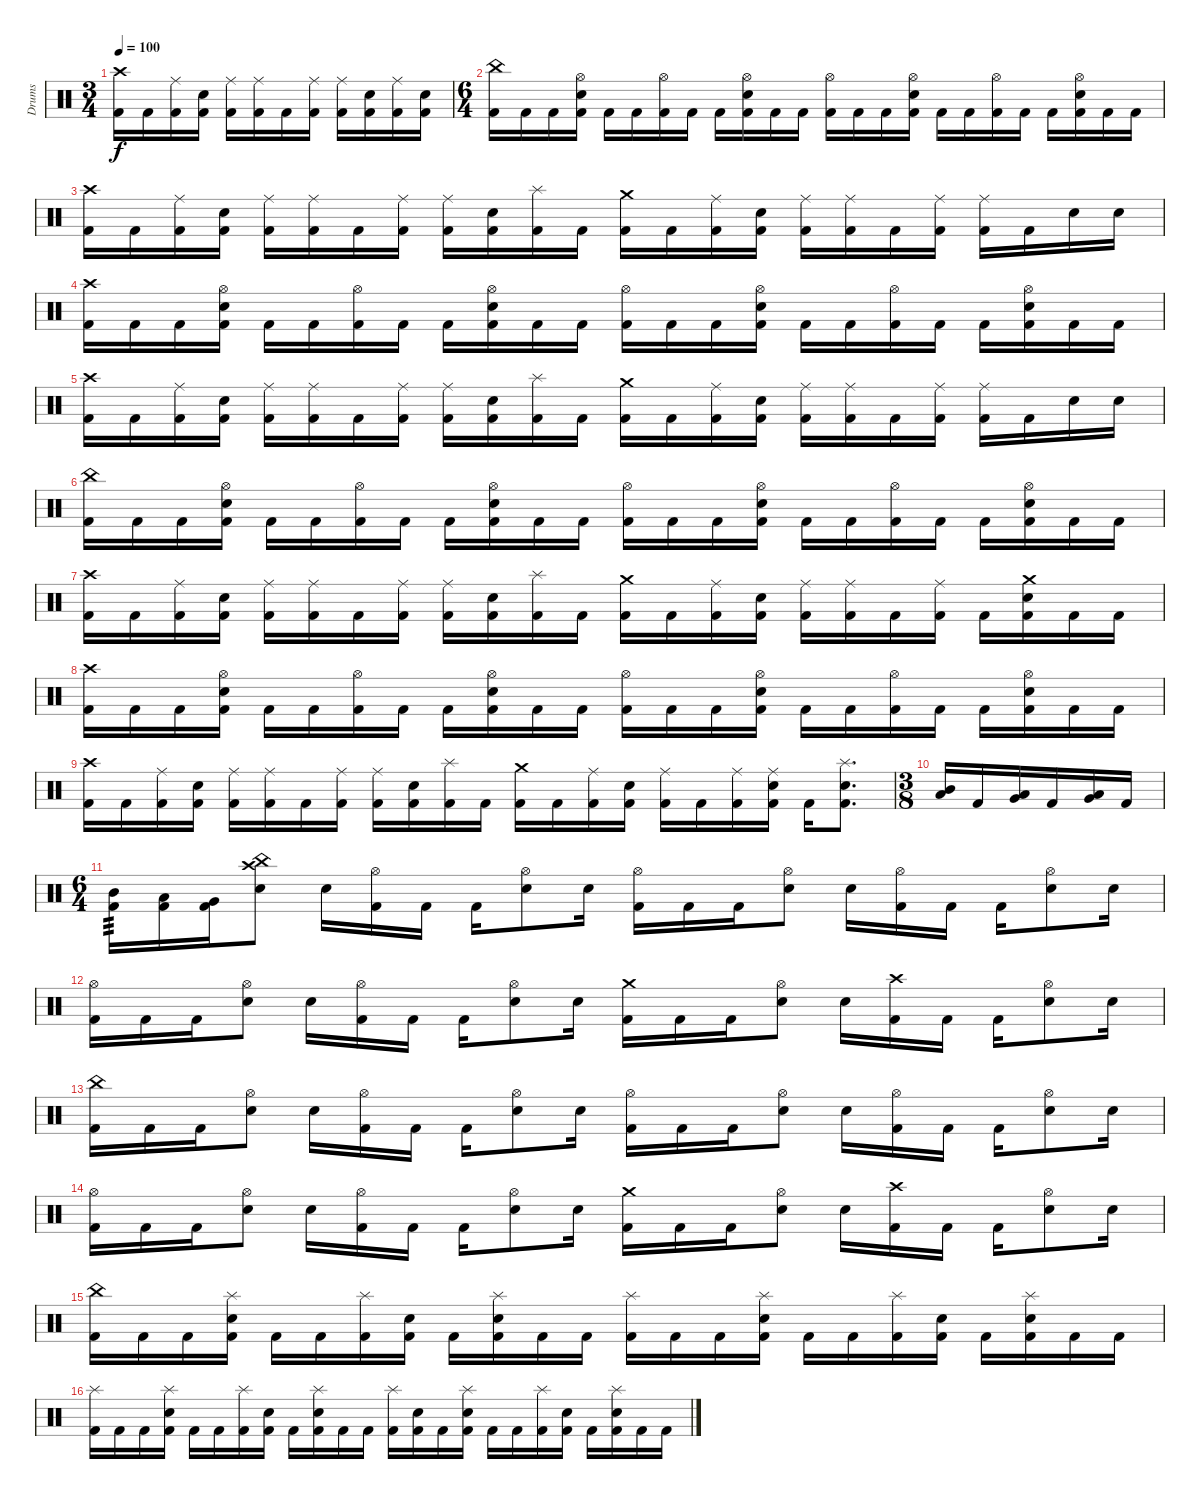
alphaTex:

\track ("Drums" "Drums") {instrument percussion}
\staff {score}
\articulation defaults
\ts (3 4)
\tempo 100
\clef neutral
\ks c
("Crash high (hit)" "Kick (hit) 2").16{dy f} "Kick (hit) 2".16 ("Ride (middle)" "Kick (hit) 2").16 ("Electric Snare (hit)" "Kick (hit) 2").16 ("Ride (middle)" "Kick (hit) 2").16 ("Ride (middle)" "Kick (hit) 2").16 "Kick (hit) 2".16 ("Ride (middle)" "Kick (hit) 2").16 ("Ride (middle)" "Kick (hit) 2").16 ("Electric Snare (hit)" "Kick (hit) 2").16 ("Ride (middle)" "Kick (hit) 2").16 ("Electric Snare (hit)" "Kick (hit) 2").16 |
\ts (6 4)
("China (hit)" "Kick (hit) 2").16 "Kick (hit) 2".16 "Kick (hit) 2".16 ("Hi-Hat (open)" "Electric Snare (hit)" "Kick (hit) 2").16 "Kick (hit) 2".16 "Kick (hit) 2".16 ("Hi-Hat (open)" "Kick (hit) 2").16 "Kick (hit) 2".16 "Kick (hit) 2".16 ("Hi-Hat (open)" "Electric Snare (hit)" "Kick (hit) 2").16 "Kick (hit) 2".16 "Kick (hit) 2".16 ("Hi-Hat (open)" "Kick (hit) 2").16 "Kick (hit) 2".16 "Kick (hit) 2".16 ("Hi-Hat (open)" "Electric Snare (hit)" "Kick (hit) 2").16 "Kick (hit) 2".16 "Kick (hit) 2".16 ("Hi-Hat (open)" "Kick (hit) 2").16 "Kick (hit) 2".16 "Kick (hit) 2".16 ("Hi-Hat (open)" "Electric Snare (hit)" "Kick (hit) 2").16 "Kick (hit) 2".16 "Kick (hit) 2".16 |
("Crash high (hit)" "Kick (hit) 2").16 "Kick (hit) 2".16 ("Ride (middle)" "Kick (hit) 2").16 ("Electric Snare (hit)" "Kick (hit) 2").16 ("Ride (middle)" "Kick (hit) 2").16 ("Ride (middle)" "Kick (hit) 2").16 "Kick (hit) 2".16 ("Ride (middle)" "Kick (hit) 2").16 ("Ride (middle)" "Kick (hit) 2").16 ("Electric Snare (hit)" "Kick (hit) 2").16 ("Splash (hit)" "Kick (hit) 2").16 "Kick (hit) 2".16 ("Crash medium (hit)" "Kick (hit) 2").16 "Kick (hit) 2".16 ("Ride (middle)" "Kick (hit) 2").16 ("Electric Snare (hit)" "Kick (hit) 2").16 ("Ride (middle)" "Kick (hit) 2").16 ("Ride (middle)" "Kick (hit) 2").16 "Kick (hit) 2".16 ("Ride (middle)" "Kick (hit) 2").16 ("Ride (middle)" "Kick (hit) 2").16 "Kick (hit) 2".16 "Electric Snare (hit)".16 "Electric Snare (hit)".16 |
("Crash high (hit)" "Kick (hit) 2").16 "Kick (hit) 2".16 "Kick (hit) 2".16 ("Hi-Hat (open)" "Electric Snare (hit)" "Kick (hit) 2").16 "Kick (hit) 2".16 "Kick (hit) 2".16 ("Hi-Hat (open)" "Kick (hit) 2").16 "Kick (hit) 2".16 "Kick (hit) 2".16 ("Hi-Hat (open)" "Electric Snare (hit)" "Kick (hit) 2").16 "Kick (hit) 2".16 "Kick (hit) 2".16 ("Hi-Hat (open)" "Kick (hit) 2").16 "Kick (hit) 2".16 "Kick (hit) 2".16 ("Hi-Hat (open)" "Electric Snare (hit)" "Kick (hit) 2").16 "Kick (hit) 2".16 "Kick (hit) 2".16 ("Hi-Hat (open)" "Kick (hit) 2").16 "Kick (hit) 2".16 "Kick (hit) 2".16 ("Hi-Hat (open)" "Electric Snare (hit)" "Kick (hit) 2").16 "Kick (hit) 2".16 "Kick (hit) 2".16 |
("Crash high (hit)" "Kick (hit) 2").16 "Kick (hit) 2".16 ("Ride (middle)" "Kick (hit) 2").16 ("Electric Snare (hit)" "Kick (hit) 2").16 ("Ride (middle)" "Kick (hit) 2").16 ("Ride (middle)" "Kick (hit) 2").16 "Kick (hit) 2".16 ("Ride (middle)" "Kick (hit) 2").16 ("Ride (middle)" "Kick (hit) 2").16 ("Electric Snare (hit)" "Kick (hit) 2").16 ("Splash (hit)" "Kick (hit) 2").16 "Kick (hit) 2".16 ("Crash medium (hit)" "Kick (hit) 2").16 "Kick (hit) 2".16 ("Ride (middle)" "Kick (hit) 2").16 ("Electric Snare (hit)" "Kick (hit) 2").16 ("Ride (middle)" "Kick (hit) 2").16 ("Ride (middle)" "Kick (hit) 2").16 "Kick (hit) 2".16 ("Ride (middle)" "Kick (hit) 2").16 ("Ride (middle)" "Kick (hit) 2").16 "Kick (hit) 2".16 "Electric Snare (hit)".16 "Electric Snare (hit)".16 |
("China (hit)" "Kick (hit) 2").16 "Kick (hit) 2".16 "Kick (hit) 2".16 ("Hi-Hat (open)" "Electric Snare (hit)" "Kick (hit) 2").16 "Kick (hit) 2".16 "Kick (hit) 2".16 ("Hi-Hat (open)" "Kick (hit) 2").16 "Kick (hit) 2".16 "Kick (hit) 2".16 ("Hi-Hat (open)" "Electric Snare (hit)" "Kick (hit) 2").16 "Kick (hit) 2".16 "Kick (hit) 2".16 ("Hi-Hat (open)" "Kick (hit) 2").16 "Kick (hit) 2".16 "Kick (hit) 2".16 ("Hi-Hat (open)" "Electric Snare (hit)" "Kick (hit) 2").16 "Kick (hit) 2".16 "Kick (hit) 2".16 ("Hi-Hat (open)" "Kick (hit) 2").16 "Kick (hit) 2".16 "Kick (hit) 2".16 ("Hi-Hat (open)" "Electric Snare (hit)" "Kick (hit) 2").16 "Kick (hit) 2".16 "Kick (hit) 2".16 |
("Crash high (hit)" "Kick (hit) 2").16 "Kick (hit) 2".16 ("Ride (middle)" "Kick (hit) 2").16 ("Electric Snare (hit)" "Kick (hit) 2").16 ("Ride (middle)" "Kick (hit) 2").16 ("Ride (middle)" "Kick (hit) 2").16 "Kick (hit) 2".16 ("Ride (middle)" "Kick (hit) 2").16 ("Ride (middle)" "Kick (hit) 2").16 ("Electric Snare (hit)" "Kick (hit) 2").16 ("Splash (hit)" "Kick (hit) 2").16 "Kick (hit) 2".16 ("Crash medium (hit)" "Kick (hit) 2").16 "Kick (hit) 2".16 ("Ride (middle)" "Kick (hit) 2").16 ("Electric Snare (hit)" "Kick (hit) 2").16 ("Ride (middle)" "Kick (hit) 2").16 ("Ride (middle)" "Kick (hit) 2").16 "Kick (hit) 2".16 ("Ride (middle)" "Kick (hit) 2").16 "Kick (hit) 2".16 ("Crash medium (hit)" "Electric Snare (hit)" "Kick (hit) 2").16 "Kick (hit) 2".16 "Kick (hit) 2".16 |
("Crash high (hit)" "Kick (hit) 2").16 "Kick (hit) 2".16 "Kick (hit) 2".16 ("Hi-Hat (open)" "Electric Snare (hit)" "Kick (hit) 2").16 "Kick (hit) 2".16 "Kick (hit) 2".16 ("Hi-Hat (open)" "Kick (hit) 2").16 "Kick (hit) 2".16 "Kick (hit) 2".16 ("Hi-Hat (open)" "Electric Snare (hit)" "Kick (hit) 2").16 "Kick (hit) 2".16 "Kick (hit) 2".16 ("Hi-Hat (open)" "Kick (hit) 2").16 "Kick (hit) 2".16 "Kick (hit) 2".16 ("Hi-Hat (open)" "Electric Snare (hit)" "Kick (hit) 2").16 "Kick (hit) 2".16 "Kick (hit) 2".16 ("Hi-Hat (open)" "Kick (hit) 2").16 "Kick (hit) 2".16 "Kick (hit) 2".16 ("Hi-Hat (open)" "Electric Snare (hit)" "Kick (hit) 2").16 "Kick (hit) 2".16 "Kick (hit) 2".16 |
("Crash high (hit)" "Kick (hit) 2").16 "Kick (hit) 2".16 ("Ride (middle)" "Kick (hit) 2").16 ("Electric Snare (hit)" "Kick (hit) 2").16 ("Ride (middle)" "Kick (hit) 2").16 ("Ride (middle)" "Kick (hit) 2").16 "Kick (hit) 2".16 ("Ride (middle)" "Kick (hit) 2").16 ("Ride (middle)" "Kick (hit) 2").16 ("Electric Snare (hit)" "Kick (hit) 2").16 ("Splash (hit)" "Kick (hit) 2").16 "Kick (hit) 2".16 ("Crash medium (hit)" "Kick (hit) 2").16 "Kick (hit) 2".16 ("Ride (middle)" "Kick (hit) 2").16 ("Electric Snare (hit)" "Kick (hit) 2").16 ("Ride (middle)" "Kick (hit) 2").16 "Kick (hit) 2".16 ("Ride (middle)" "Kick (hit) 2").16 ("Ride (middle)" "Electric Snare (hit)" "Kick (hit) 2").16 "Kick (hit) 2".16 ("Splash (hit)" "Electric Snare (hit)" "Kick (hit) 2").8{d} |
\ts (3 8)
("Mid Tom (hit)" "Low Tom (hit)").16 "Kick (hit) 2".16 ("Low Tom (hit)" "Very Low Tom (hit)").16 "Kick (hit) 2".16 ("Low Floor Tom (hit)" "Very Low Tom (hit)").16 "Kick (hit) 2".16 |
\ts (6 4)
("Mid Tom (hit)" "Kick (hit) 2").16{tp 3} ("Low Tom (hit)" "Kick (hit) 2").16 ("Very Low Tom (hit)" "Kick (hit) 2").16 ("China (hit)" "Crash high (hit)" "Electric Snare (hit)").8 "Electric Snare (hit)".16 ("Hi-Hat (open)" "Kick (hit) 2").16 "Kick (hit) 2".16 "Kick (hit) 2".16 ("Hi-Hat (open)" "Electric Snare (hit)").8 "Electric Snare (hit)".16 ("Hi-Hat (open)" "Kick (hit) 2").16 "Kick (hit) 2".16 "Kick (hit) 2".16 ("Hi-Hat (open)" "Electric Snare (hit)").8 "Electric Snare (hit)".16 ("Hi-Hat (open)" "Kick (hit) 2").16 "Kick (hit) 2".16 "Kick (hit) 2".16 ("Hi-Hat (open)" "Electric Snare (hit)").8 "Electric Snare (hit)".16 |
("Hi-Hat (open)" "Kick (hit) 2").16 "Kick (hit) 2".16 "Kick (hit) 2".16 ("Hi-Hat (open)" "Electric Snare (hit)").8 "Electric Snare (hit)".16 ("Hi-Hat (open)" "Kick (hit) 2").16 "Kick (hit) 2".16 "Kick (hit) 2".16 ("Hi-Hat (open)" "Electric Snare (hit)").8 "Electric Snare (hit)".16 ("Crash medium (hit)" "Kick (hit) 2").16 "Kick (hit) 2".16 "Kick (hit) 2".16 ("Hi-Hat (open)" "Electric Snare (hit)").8 "Electric Snare (hit)".16 ("Crash high (hit)" "Kick (hit) 2").16 "Kick (hit) 2".16 "Kick (hit) 2".16 ("Hi-Hat (open)" "Electric Snare (hit)").8 "Electric Snare (hit)".16 |
("China (hit)" "Kick (hit) 2").16 "Kick (hit) 2".16 "Kick (hit) 2".16 ("Hi-Hat (open)" "Electric Snare (hit)").8 "Electric Snare (hit)".16 ("Hi-Hat (open)" "Kick (hit) 2").16 "Kick (hit) 2".16 "Kick (hit) 2".16 ("Hi-Hat (open)" "Electric Snare (hit)").8 "Electric Snare (hit)".16 ("Hi-Hat (open)" "Kick (hit) 2").16 "Kick (hit) 2".16 "Kick (hit) 2".16 ("Hi-Hat (open)" "Electric Snare (hit)").8 "Electric Snare (hit)".16 ("Hi-Hat (open)" "Kick (hit) 2").16 "Kick (hit) 2".16 "Kick (hit) 2".16 ("Hi-Hat (open)" "Electric Snare (hit)").8 "Electric Snare (hit)".16 |
("Hi-Hat (open)" "Kick (hit) 2").16 "Kick (hit) 2".16 "Kick (hit) 2".16 ("Hi-Hat (open)" "Electric Snare (hit)").8 "Electric Snare (hit)".16 ("Hi-Hat (open)" "Kick (hit) 2").16 "Kick (hit) 2".16 "Kick (hit) 2".16 ("Hi-Hat (open)" "Electric Snare (hit)").8 "Electric Snare (hit)".16 ("Crash medium (hit)" "Kick (hit) 2").16 "Kick (hit) 2".16 "Kick (hit) 2".16 ("Hi-Hat (open)" "Electric Snare (hit)").8 "Electric Snare (hit)".16 ("Crash high (hit)" "Kick (hit) 2").16 "Kick (hit) 2".16 "Kick (hit) 2".16 ("Hi-Hat (open)" "Electric Snare (hit)").8 "Electric Snare (hit)".16 |
("China (hit)" "Kick (hit) 2").16 "Kick (hit) 2".16 "Kick (hit) 2".16 ("Splash (hit)" "Electric Snare (hit)" "Kick (hit) 2").16 "Kick (hit) 2".16 "Kick (hit) 2".16 ("Splash (hit)" "Kick (hit) 2").16 ("Electric Snare (hit)" "Kick (hit) 2").16 "Kick (hit) 2".16 ("Splash (hit)" "Electric Snare (hit)" "Kick (hit) 2").16 "Kick (hit) 2".16 "Kick (hit) 2".16 ("Splash (hit)" "Kick (hit) 2").16 "Kick (hit) 2".16 "Kick (hit) 2".16 ("Splash (hit)" "Electric Snare (hit)" "Kick (hit) 2").16 "Kick (hit) 2".16 "Kick (hit) 2".16 ("Splash (hit)" "Kick (hit) 2").16 ("Electric Snare (hit)" "Kick (hit) 2").16 "Kick (hit) 2".16 ("Splash (hit)" "Electric Snare (hit)" "Kick (hit) 2").16 "Kick (hit) 2".16 "Kick (hit) 2".16 |
("Splash (hit)" "Kick (hit) 2").16 "Kick (hit) 2".16 "Kick (hit) 2".16 ("Splash (hit)" "Electric Snare (hit)" "Kick (hit) 2").16 "Kick (hit) 2".16 "Kick (hit) 2".16 ("Splash (hit)" "Kick (hit) 2").16 ("Electric Snare (hit)" "Kick (hit) 2").16 "Kick (hit) 2".16 ("Splash (hit)" "Electric Snare (hit)" "Kick (hit) 2").16 "Kick (hit) 2".16 "Kick (hit) 2".16 ("Splash (hit)" "Kick (hit) 2").16 ("Electric Snare (hit)" "Kick (hit) 2").16 "Kick (hit) 2".16 ("Splash (hit)" "Electric Snare (hit)" "Kick (hit) 2").16 "Kick (hit) 2".16 "Kick (hit) 2".16 ("Splash (hit)" "Kick (hit) 2").16 ("Electric Snare (hit)" "Kick (hit) 2").16 "Kick (hit) 2".16 ("Splash (hit)" "Electric Snare (hit)" "Kick (hit) 2").16 "Kick (hit) 2".16 "Kick (hit) 2".16
